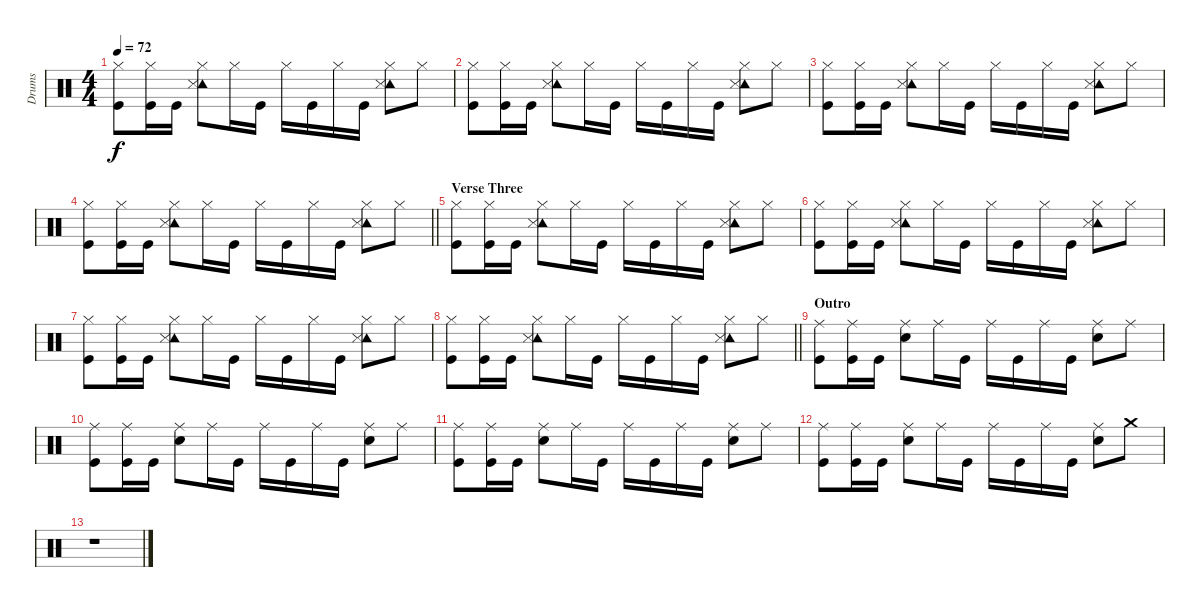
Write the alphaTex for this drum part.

\track ("Drums" "Drums") {instrument percussion}
\staff {score}
\articulation defaults
\ts (4 4)
\tempo 72
\clef neutral
\ks c
("Hi-Hat (closed)" "Kick (hit)").8{dy f} ("Hi-Hat (closed)" "Kick (hit)").16 "Kick (hit)".16 ("Tambourine (hit)" "Hi-Hat (closed)" "Snare (side stick) 3").8 "Hi-Hat (closed)".16 "Kick (hit)".16 "Hi-Hat (closed)".16 "Kick (hit)".16 "Hi-Hat (closed)".16 "Kick (hit)".16 ("Tambourine (hit)" "Hi-Hat (closed)" "Snare (side stick) 3").8 "Hi-Hat (closed)".8 |
("Hi-Hat (closed)" "Kick (hit)").8 ("Hi-Hat (closed)" "Kick (hit)").16 "Kick (hit)".16 ("Tambourine (hit)" "Hi-Hat (closed)" "Snare (side stick) 3").8 "Hi-Hat (closed)".16 "Kick (hit)".16 "Hi-Hat (closed)".16 "Kick (hit)".16 "Hi-Hat (closed)".16 "Kick (hit)".16 ("Tambourine (hit)" "Hi-Hat (closed)" "Snare (side stick) 3").8 "Hi-Hat (closed)".8 |
("Hi-Hat (closed)" "Kick (hit)").8 ("Hi-Hat (closed)" "Kick (hit)").16 "Kick (hit)".16 ("Tambourine (hit)" "Hi-Hat (closed)" "Snare (side stick) 3").8 "Hi-Hat (closed)".16 "Kick (hit)".16 "Hi-Hat (closed)".16 "Kick (hit)".16 "Hi-Hat (closed)".16 "Kick (hit)".16 ("Tambourine (hit)" "Hi-Hat (closed)" "Snare (side stick) 3").8 "Hi-Hat (closed)".8 |
\barLineRight lightlight
("Hi-Hat (closed)" "Kick (hit)").8 ("Hi-Hat (closed)" "Kick (hit)").16 "Kick (hit)".16 ("Tambourine (hit)" "Hi-Hat (closed)" "Snare (side stick) 3").8 "Hi-Hat (closed)".16 "Kick (hit)".16 "Hi-Hat (closed)".16 "Kick (hit)".16 "Hi-Hat (closed)".16 "Kick (hit)".16 ("Tambourine (hit)" "Hi-Hat (closed)" "Snare (side stick) 3").8 "Hi-Hat (closed)".8 |
\section ("" "Verse Three")
("Hi-Hat (closed)" "Kick (hit)").8 ("Hi-Hat (closed)" "Kick (hit)").16 "Kick (hit)".16 ("Tambourine (hit)" "Hi-Hat (closed)" "Snare (side stick) 3").8 "Hi-Hat (closed)".16 "Kick (hit)".16 "Hi-Hat (closed)".16 "Kick (hit)".16 "Hi-Hat (closed)".16 "Kick (hit)".16 ("Tambourine (hit)" "Hi-Hat (closed)" "Snare (side stick) 3").8 "Hi-Hat (closed)".8 |
("Hi-Hat (closed)" "Kick (hit)").8 ("Hi-Hat (closed)" "Kick (hit)").16 "Kick (hit)".16 ("Tambourine (hit)" "Hi-Hat (closed)" "Snare (side stick) 3").8 "Hi-Hat (closed)".16 "Kick (hit)".16 "Hi-Hat (closed)".16 "Kick (hit)".16 "Hi-Hat (closed)".16 "Kick (hit)".16 ("Tambourine (hit)" "Hi-Hat (closed)" "Snare (side stick) 3").8 "Hi-Hat (closed)".8 |
("Hi-Hat (closed)" "Kick (hit)").8 ("Hi-Hat (closed)" "Kick (hit)").16 "Kick (hit)".16 ("Tambourine (hit)" "Hi-Hat (closed)" "Snare (side stick) 3").8 "Hi-Hat (closed)".16 "Kick (hit)".16 "Hi-Hat (closed)".16 "Kick (hit)".16 "Hi-Hat (closed)".16 "Kick (hit)".16 ("Tambourine (hit)" "Hi-Hat (closed)" "Snare (side stick) 3").8 "Hi-Hat (closed)".8 |
\barLineRight lightlight
("Hi-Hat (closed)" "Kick (hit)").8 ("Hi-Hat (closed)" "Kick (hit)").16 "Kick (hit)".16 ("Tambourine (hit)" "Hi-Hat (closed)" "Snare (side stick) 3").8 "Hi-Hat (closed)".16 "Kick (hit)".16 "Hi-Hat (closed)".16 "Kick (hit)".16 "Hi-Hat (closed)".16 "Kick (hit)".16 ("Tambourine (hit)" "Hi-Hat (closed)" "Snare (side stick) 3").8 "Hi-Hat (closed)".8 |
\section ("" "Outro")
("Ride (middle)" "Kick (hit)").8 ("Ride (middle)" "Kick (hit)").16 "Kick (hit)".16 ("Ride (middle)" "Snare (hit) 2").8 "Ride (middle)".16 "Kick (hit)".16 "Ride (middle)".16 "Kick (hit)".16 "Ride (middle)".16 "Kick (hit)".16 ("Ride (middle)" "Snare (hit) 2").8 "Ride (middle)".8 |
("Ride (middle)" "Kick (hit)").8 ("Ride (middle)" "Kick (hit)").16 "Kick (hit)".16 ("Ride (middle)" "Snare (hit) 2").8 "Ride (middle)".16 "Kick (hit)".16 "Ride (middle)".16 "Kick (hit)".16 "Ride (middle)".16 "Kick (hit)".16 ("Ride (middle)" "Snare (hit) 2").8 "Ride (middle)".8 |
("Ride (middle)" "Kick (hit)").8 ("Ride (middle)" "Kick (hit)").16 "Kick (hit)".16 ("Ride (middle)" "Snare (hit) 2").8 "Ride (middle)".16 "Kick (hit)".16 "Ride (middle)".16 "Kick (hit)".16 "Ride (middle)".16 "Kick (hit)".16 ("Ride (middle)" "Snare (hit) 2").8 "Ride (middle)".8 |
("Ride (middle)" "Kick (hit)").8 ("Ride (middle)" "Kick (hit)").16 "Kick (hit)".16 ("Ride (middle)" "Snare (hit) 2").8 "Ride (middle)".16 "Kick (hit)".16 "Ride (middle)".16 "Kick (hit)".16 "Ride (middle)".16 "Kick (hit)".16 ("Ride (middle)" "Snare (hit) 2").8 "Crash medium (hit)".8 |
r.1
